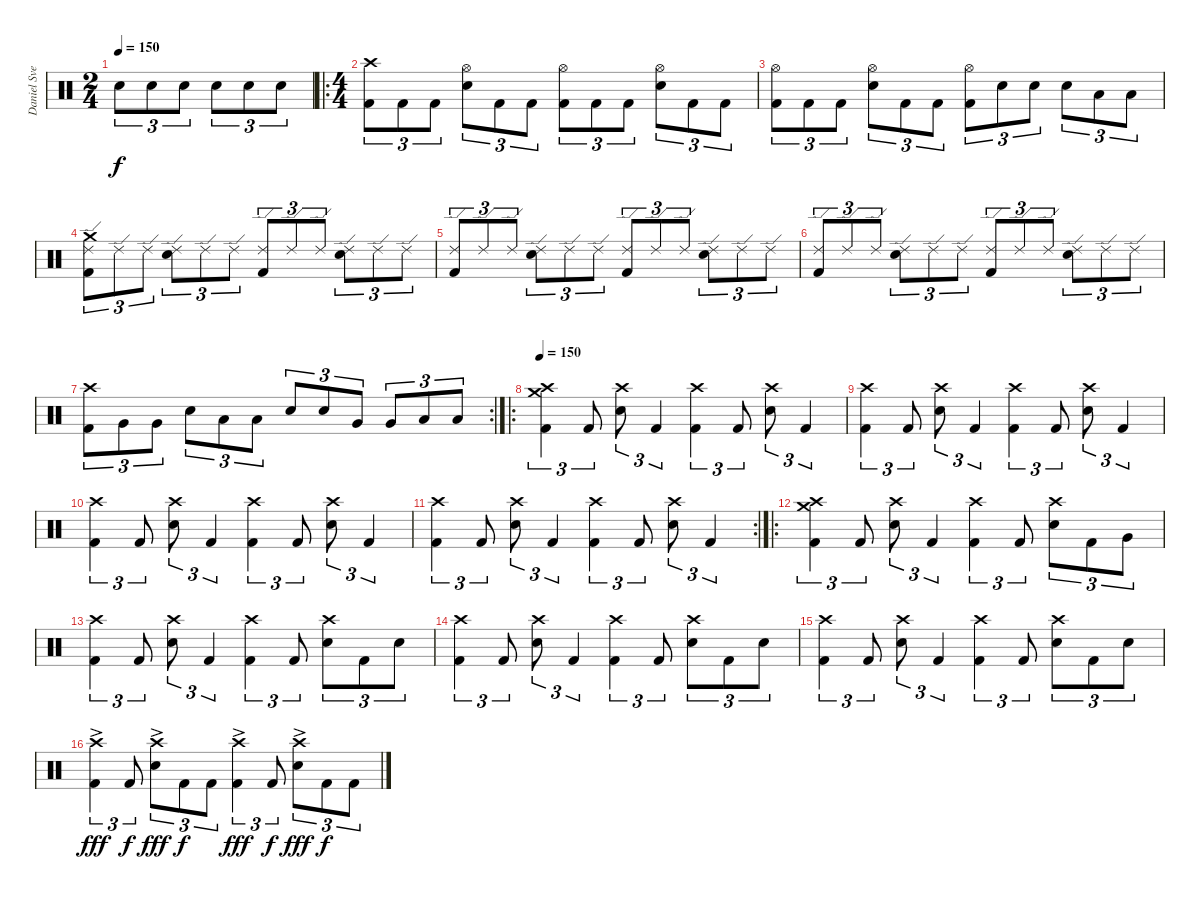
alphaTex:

\track ("Daniel Svensson" "Daniel Sve") {instrument percussion}
\staff {score}
\articulation defaults
\ts (2 4)
\tempo 150
\clef neutral
\ks c "Electric Snare (hit)".8{tu (3 2) dy f} "Electric Snare (hit)".8{tu (3 2)} "Electric Snare (hit)".8{tu (3 2)} "Electric Snare (hit)".8{tu (3 2)} "Electric Snare (hit)".8{tu (3 2)} "Electric Snare (hit)".8{tu (3 2)}
|
\ro
\ts (4 4)
("Crash high (hit)" "Kick (hit) 2").8{tu (3 2)} "Kick (hit) 2".8{tu (3 2)} "Kick (hit) 2".8{tu (3 2)} ("Hi-Hat (open)" "Electric Snare (hit)").8{tu (3 2)} "Kick (hit) 2".8{tu (3 2)} "Kick (hit) 2".8{tu (3 2)} ("Hi-Hat (open)" "Kick (hit) 2").8{tu (3 2)} "Kick (hit) 2".8{tu (3 2)} "Kick (hit) 2".8{tu (3 2)} ("Hi-Hat (open)" "Electric Snare (hit)").8{tu (3 2)} "Kick (hit) 2".8{tu (3 2)} "Kick (hit) 2".8{tu (3 2)} |
("Hi-Hat (open)" "Kick (hit) 2").8{tu (3 2)} "Kick (hit) 2".8{tu (3 2)} "Kick (hit) 2".8{tu (3 2)} ("Hi-Hat (open)" "Electric Snare (hit)").8{tu (3 2)} "Kick (hit) 2".8{tu (3 2)} "Kick (hit) 2".8{tu (3 2)} ("Hi-Hat (open)" "Kick (hit) 2").8{tu (3 2)} "Electric Snare (hit)".8{tu (3 2)} "Electric Snare (hit)".8{tu (3 2)} "Electric Snare (hit)".8{tu (3 2)} "Low Floor Tom (hit)".8{tu (3 2)} "Low Floor Tom (hit)".8{tu (3 2)} |
("Ride (edge) 2" "Crash medium (hit)" "Kick (hit) 2").8{tu (3 2)} "Ride (edge) 2".8{tu (3 2)} "Ride (edge) 2".8{tu (3 2)} ("Ride (edge) 2" "Electric Snare (hit)").8{tu (3 2)} "Ride (edge) 2".8{tu (3 2)} "Ride (edge) 2".8{tu (3 2)} ("Ride (edge) 2" "Kick (hit) 2").8{tu (3 2)} "Ride (edge) 2".8{tu (3 2)} "Ride (edge) 2".8{tu (3 2)} ("Ride (edge) 2" "Electric Snare (hit)").8{tu (3 2)} "Ride (edge) 2".8{tu (3 2)} "Ride (edge) 2".8{tu (3 2)} |
("Ride (edge) 2" "Kick (hit) 2").8{tu (3 2)} "Ride (edge) 2".8{tu (3 2)} "Ride (edge) 2".8{tu (3 2)} ("Ride (edge) 2" "Electric Snare (hit)").8{tu (3 2)} "Ride (edge) 2".8{tu (3 2)} "Ride (edge) 2".8{tu (3 2)} ("Ride (edge) 2" "Kick (hit) 2").8{tu (3 2)} "Ride (edge) 2".8{tu (3 2)} "Ride (edge) 2".8{tu (3 2)} ("Ride (edge) 2" "Electric Snare (hit)").8{tu (3 2)} "Ride (edge) 2".8{tu (3 2)} "Ride (edge) 2".8{tu (3 2)} |
("Ride (edge) 2" "Kick (hit) 2").8{tu (3 2)} "Ride (edge) 2".8{tu (3 2)} "Ride (edge) 2".8{tu (3 2)} ("Ride (edge) 2" "Electric Snare (hit)").8{tu (3 2)} "Ride (edge) 2".8{tu (3 2)} "Ride (edge) 2".8{tu (3 2)} ("Ride (edge) 2" "Kick (hit) 2").8{tu (3 2)} "Ride (edge) 2".8{tu (3 2)} "Ride (edge) 2".8{tu (3 2)} ("Ride (edge) 2" "Electric Snare (hit)").8{tu (3 2)} "Ride (edge) 2".8{tu (3 2)} "Ride (edge) 2".8{tu (3 2)} |
\rc 2
("Crash high (hit)" "Kick (hit) 2").8{tu (3 2)} "Very Low Tom (hit)".8{tu (3 2)} "Very Low Tom (hit)".8{tu (3 2)} "Electric Snare (hit)".8{tu (3 2)} "Low Floor Tom (hit)".8{tu (3 2)} "Low Floor Tom (hit)".8{tu (3 2)} "Electric Snare (hit)".8{tu (3 2)} "Electric Snare (hit)".8{tu (3 2)} "Very Low Tom (hit)".8{tu (3 2)} "Very Low Tom (hit)".8{tu (3 2)} "Low Floor Tom (hit)".8{tu (3 2)} "Low Floor Tom (hit)".8{tu (3 2)} |
\ro
\tempo 150
("Crash medium (hit)" "Crash high (hit)" "Kick (hit) 2").4{tu (3 2)} "Kick (hit) 2".8{tu (3 2)} ("Crash high (hit)" "Electric Snare (hit)").8{tu (3 2)} "Kick (hit) 2".4{tu (3 2)} ("Crash high (hit)" "Kick (hit) 2").4{tu (3 2)} "Kick (hit) 2".8{tu (3 2)} ("Electric Snare (hit)" "Crash high (hit)").8{tu (3 2)} "Kick (hit) 2".4{tu (3 2)} |
("Crash high (hit)" "Kick (hit) 2").4{tu (3 2)} "Kick (hit) 2".8{tu (3 2)} ("Crash high (hit)" "Electric Snare (hit)").8{tu (3 2)} "Kick (hit) 2".4{tu (3 2)} ("Crash high (hit)" "Kick (hit) 2").4{tu (3 2)} "Kick (hit) 2".8{tu (3 2)} ("Electric Snare (hit)" "Crash high (hit)").8{tu (3 2)} "Kick (hit) 2".4{tu (3 2)} |
("Crash high (hit)" "Kick (hit) 2").4{tu (3 2)} "Kick (hit) 2".8{tu (3 2)} ("Crash high (hit)" "Electric Snare (hit)").8{tu (3 2)} "Kick (hit) 2".4{tu (3 2)} ("Crash high (hit)" "Kick (hit) 2").4{tu (3 2)} "Kick (hit) 2".8{tu (3 2)} ("Electric Snare (hit)" "Crash high (hit)").8{tu (3 2)} "Kick (hit) 2".4{tu (3 2)} |
\rc 2
("Crash high (hit)" "Kick (hit) 2").4{tu (3 2)} "Kick (hit) 2".8{tu (3 2)} ("Crash high (hit)" "Electric Snare (hit)").8{tu (3 2)} "Kick (hit) 2".4{tu (3 2)} ("Crash high (hit)" "Kick (hit) 2").4{tu (3 2)} "Kick (hit) 2".8{tu (3 2)} ("Electric Snare (hit)" "Crash high (hit)").8{tu (3 2)} "Kick (hit) 2".4{tu (3 2)} |
\ro
("Crash medium (hit)" "Crash high (hit)" "Kick (hit) 2").4{tu (3 2)} "Kick (hit) 2".8{tu (3 2)} ("Crash high (hit)" "Electric Snare (hit)").8{tu (3 2)} "Kick (hit) 2".4{tu (3 2)} ("Crash high (hit)" "Kick (hit) 2").4{tu (3 2)} "Kick (hit) 2".8{tu (3 2)} ("Electric Snare (hit)" "Crash high (hit)").8{tu (3 2)} "Kick (hit) 2".8{tu (3 2)} "Very Low Tom (hit)".8{tu (3 2)} |
("Crash high (hit)" "Kick (hit) 2").4{tu (3 2)} "Kick (hit) 2".8{tu (3 2)} ("Crash high (hit)" "Electric Snare (hit)").8{tu (3 2)} "Kick (hit) 2".4{tu (3 2)} ("Crash high (hit)" "Kick (hit) 2").4{tu (3 2)} "Kick (hit) 2".8{tu (3 2)} ("Electric Snare (hit)" "Crash high (hit)").8{tu (3 2)} "Kick (hit) 2".8{tu (3 2)} "Electric Snare (hit)".8{tu (3 2)} |
("Crash high (hit)" "Kick (hit) 2").4{tu (3 2)} "Kick (hit) 2".8{tu (3 2)} ("Crash high (hit)" "Electric Snare (hit)").8{tu (3 2)} "Kick (hit) 2".4{tu (3 2)} ("Crash high (hit)" "Kick (hit) 2").4{tu (3 2)} "Kick (hit) 2".8{tu (3 2)} ("Electric Snare (hit)" "Crash high (hit)").8{tu (3 2)} "Kick (hit) 2".8{tu (3 2)} "Electric Snare (hit)".8{tu (3 2)} |
("Crash high (hit)" "Kick (hit) 2").4{tu (3 2)} "Kick (hit) 2".8{tu (3 2)} ("Crash high (hit)" "Electric Snare (hit)").8{tu (3 2)} "Kick (hit) 2".4{tu (3 2)} ("Crash high (hit)" "Kick (hit) 2").4{tu (3 2)} "Kick (hit) 2".8{tu (3 2)} ("Electric Snare (hit)" "Crash high (hit)").8{tu (3 2)} "Kick (hit) 2".8{tu (3 2)} "Electric Snare (hit)".8{tu (3 2)} |
("Crash high (hit)"{ac} "Kick (hit) 2").4{tu (3 2) dy fff} "Kick (hit) 2".8{tu (3 2) dy f} ("Crash high (hit)"{ac} "Electric Snare (hit)").8{tu (3 2) dy fff} "Kick (hit) 2".8{tu (3 2) dy f} "Kick (hit) 2".8{tu (3 2)} ("Crash high (hit)"{ac} "Kick (hit) 2").4{tu (3 2) dy fff} "Kick (hit) 2".8{tu (3 2) dy f} ("Electric Snare (hit)" "Crash high (hit)"{ac}).8{tu (3 2) dy fff} "Kick (hit) 2".8{tu (3 2) dy f} "Kick (hit) 2".8{tu (3 2)}
